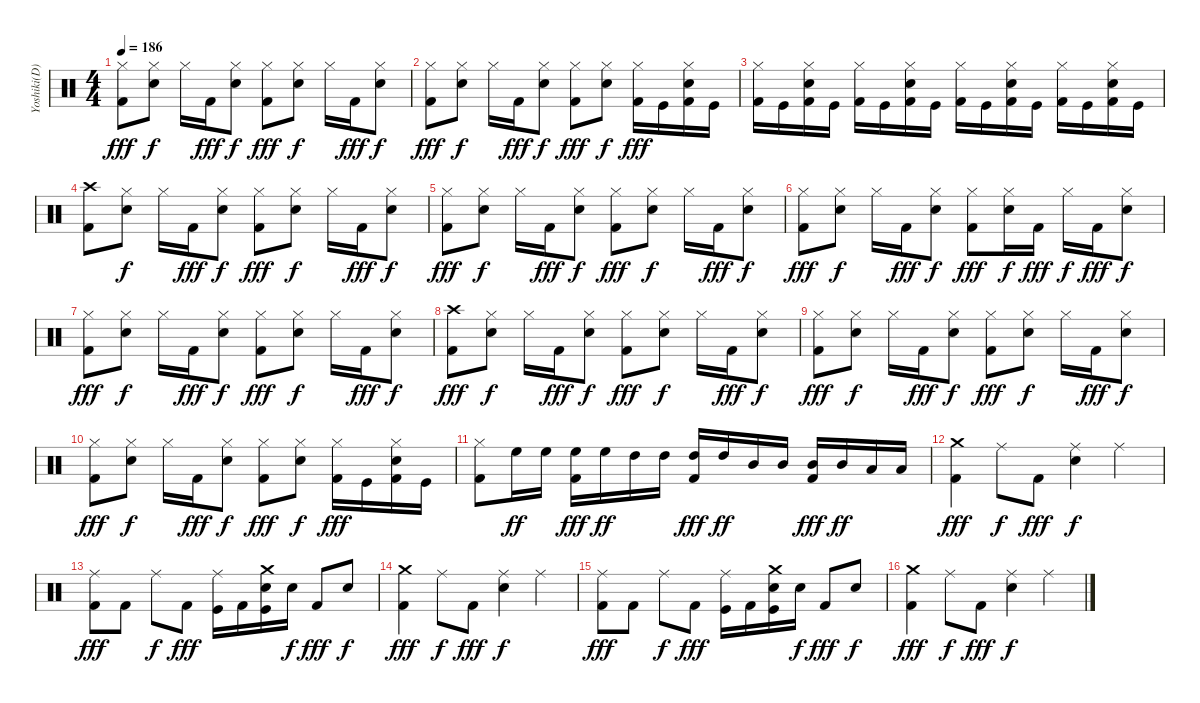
\track ("Yoshiki(D)" "Yoshiki(D)") {instrument percussion}
\staff {score}
\articulation defaults
\ts (4 4)
\tempo 186
\clef neutral
\ks c
("Hi-Hat (closed)" "Kick (hit) 2").8{dy fff} ("Hi-Hat (closed)" "Electric Snare (hit)").8{dy f} "Hi-Hat (closed)".16 "Kick (hit) 2".16{dy fff} ("Hi-Hat (closed)" "Electric Snare (hit)").8{dy f} ("Hi-Hat (closed)" "Kick (hit) 2").8{dy fff} ("Hi-Hat (closed)" "Electric Snare (hit)").8{dy f} "Hi-Hat (closed)".16 "Kick (hit) 2".16{dy fff} ("Hi-Hat (closed)" "Electric Snare (hit)").8{dy f} |
("Hi-Hat (closed)" "Kick (hit) 2").8{dy fff} ("Hi-Hat (closed)" "Electric Snare (hit)").8{dy f} "Hi-Hat (closed)".16 "Kick (hit) 2".16{dy fff} ("Hi-Hat (closed)" "Electric Snare (hit)").8{dy f} ("Hi-Hat (closed)" "Kick (hit) 2").8{dy fff} ("Hi-Hat (closed)" "Electric Snare (hit)").8{dy f} ("Hi-Hat (closed)" "Kick (hit) 2").16{dy fff} "Kick (hit)".16 ("Hi-Hat (closed)" "Electric Snare (hit)" "Kick (hit) 2").16 "Kick (hit)".16 |
("Hi-Hat (closed)" "Kick (hit) 2").16 "Kick (hit)".16 ("Hi-Hat (closed)" "Electric Snare (hit)" "Kick (hit) 2").16 "Kick (hit)".16 ("Hi-Hat (closed)" "Kick (hit) 2").16 "Kick (hit)".16 ("Hi-Hat (closed)" "Electric Snare (hit)" "Kick (hit) 2").16 "Kick (hit)".16 ("Hi-Hat (closed)" "Kick (hit) 2").16 "Kick (hit)".16 ("Hi-Hat (closed)" "Electric Snare (hit)" "Kick (hit) 2").16 "Kick (hit)".16 ("Hi-Hat (closed)" "Kick (hit) 2").16 "Kick (hit)".16 ("Hi-Hat (closed)" "Electric Snare (hit)" "Kick (hit) 2").16 "Kick (hit)".16 |
("Crash high (hit)" "Kick (hit) 2").8 ("Hi-Hat (closed)" "Electric Snare (hit)").8{dy f} "Hi-Hat (closed)".16 "Kick (hit) 2".16{dy fff} ("Hi-Hat (closed)" "Electric Snare (hit)").8{dy f} ("Hi-Hat (closed)" "Kick (hit) 2").8{dy fff} ("Hi-Hat (closed)" "Electric Snare (hit)").8{dy f} "Hi-Hat (closed)".16 "Kick (hit) 2".16{dy fff} ("Hi-Hat (closed)" "Electric Snare (hit)").8{dy f} |
("Hi-Hat (closed)" "Kick (hit) 2").8{dy fff} ("Hi-Hat (closed)" "Electric Snare (hit)").8{dy f} "Hi-Hat (closed)".16 "Kick (hit) 2".16{dy fff} ("Hi-Hat (closed)" "Electric Snare (hit)").8{dy f} ("Hi-Hat (closed)" "Kick (hit) 2").8{dy fff} ("Hi-Hat (closed)" "Electric Snare (hit)").8{dy f} "Hi-Hat (closed)".16 "Kick (hit) 2".16{dy fff} ("Hi-Hat (closed)" "Electric Snare (hit)").8{dy f} |
("Hi-Hat (closed)" "Kick (hit) 2").8{dy fff} ("Hi-Hat (closed)" "Electric Snare (hit)").8{dy f} "Hi-Hat (closed)".16 "Kick (hit) 2".16{dy fff} ("Hi-Hat (closed)" "Electric Snare (hit)").8{dy f} ("Hi-Hat (closed)" "Kick (hit) 2").8{dy fff} ("Hi-Hat (closed)" "Electric Snare (hit)").16{dy f} "Kick (hit) 2".16{dy fff} "Hi-Hat (closed)".16{dy f} "Kick (hit) 2".16{dy fff} ("Hi-Hat (closed)" "Electric Snare (hit)").8{dy f} |
("Hi-Hat (closed)" "Kick (hit) 2").8{dy fff} ("Hi-Hat (closed)" "Electric Snare (hit)").8{dy f} "Hi-Hat (closed)".16 "Kick (hit) 2".16{dy fff} ("Hi-Hat (closed)" "Electric Snare (hit)").8{dy f} ("Hi-Hat (closed)" "Kick (hit) 2").8{dy fff} ("Hi-Hat (closed)" "Electric Snare (hit)").8{dy f} "Hi-Hat (closed)".16 "Kick (hit) 2".16{dy fff} ("Hi-Hat (closed)" "Electric Snare (hit)").8{dy f} |
("Crash high (hit)" "Kick (hit) 2").8{dy fff} ("Hi-Hat (closed)" "Electric Snare (hit)").8{dy f} "Hi-Hat (closed)".16 "Kick (hit) 2".16{dy fff} ("Hi-Hat (closed)" "Electric Snare (hit)").8{dy f} ("Hi-Hat (closed)" "Kick (hit) 2").8{dy fff} ("Hi-Hat (closed)" "Electric Snare (hit)").8{dy f} "Hi-Hat (closed)".16 "Kick (hit) 2".16{dy fff} ("Hi-Hat (closed)" "Electric Snare (hit)").8{dy f} |
("Hi-Hat (closed)" "Kick (hit) 2").8{dy fff} ("Hi-Hat (closed)" "Electric Snare (hit)").8{dy f} "Hi-Hat (closed)".16 "Kick (hit) 2".16{dy fff} ("Hi-Hat (closed)" "Electric Snare (hit)").8{dy f} ("Hi-Hat (closed)" "Kick (hit) 2").8{dy fff} ("Hi-Hat (closed)" "Electric Snare (hit)").8{dy f} "Hi-Hat (closed)".16 "Kick (hit) 2".16{dy fff} ("Hi-Hat (closed)" "Electric Snare (hit)").8{dy f} |
("Hi-Hat (closed)" "Kick (hit) 2").8{dy fff} ("Hi-Hat (closed)" "Electric Snare (hit)").8{dy f} "Hi-Hat (closed)".16 "Kick (hit) 2".16{dy fff} ("Hi-Hat (closed)" "Electric Snare (hit)").8{dy f} ("Hi-Hat (closed)" "Kick (hit) 2").8{dy fff} ("Hi-Hat (closed)" "Electric Snare (hit)").8{dy f} ("Hi-Hat (closed)" "Kick (hit) 2").16{dy fff} "Kick (hit)".16 ("Hi-Hat (closed)" "Electric Snare (hit)" "Kick (hit) 2").16 "Kick (hit)".16 |
("Hi-Hat (closed)" "Kick (hit) 2").8 "High Floor Tom (hit)".16{dy ff} "High Floor Tom (hit)".16 ("High Floor Tom (hit)" "Kick (hit) 2").16{dy fff} "High Floor Tom (hit)".16{dy ff} "High Tom (hit)".16 "High Tom (hit)".16 ("High Tom (hit)" "Kick (hit) 2").16{dy fff} "High Tom (hit)".16{dy ff} "Mid Tom (hit)".16 "Mid Tom (hit)".16 ("Mid Tom (hit)" "Kick (hit) 2").16{dy fff} "Mid Tom (hit)".16{dy ff} "Low Tom (hit)".16 "Low Tom (hit)".16 |
("Crash medium (hit)" "Kick (hit) 2").4{dy fff} "Ride (middle)".8{dy f} "Kick (hit) 2".8{dy fff} ("Ride (middle)" "Electric Snare (hit)").4{dy f} "Ride (middle)".4 |
("Ride (middle)" "Kick (hit) 2").8{dy fff} "Kick (hit) 2".8 "Ride (middle)".8{dy f} "Kick (hit) 2".8{dy fff} ("Ride (middle)" "Kick (hit)").16 "Kick (hit) 2".16 ("Crash medium (hit)" "Electric Snare (hit)" "Kick (hit)").16 "Electric Snare (hit)".16{dy f} "Kick (hit) 2".8{dy fff} "Electric Snare (hit)".8{dy f} |
("Crash medium (hit)" "Kick (hit) 2").4{dy fff} "Ride (middle)".8{dy f} "Kick (hit) 2".8{dy fff} ("Ride (middle)" "Electric Snare (hit)").4{dy f} "Ride (middle)".4 |
("Ride (middle)" "Kick (hit) 2").8{dy fff} "Kick (hit) 2".8 "Ride (middle)".8{dy f} "Kick (hit) 2".8{dy fff} ("Ride (middle)" "Kick (hit)").16 "Kick (hit) 2".16 ("Crash medium (hit)" "Electric Snare (hit)" "Kick (hit)").16 "Electric Snare (hit)".16{dy f} "Kick (hit) 2".8{dy fff} "Electric Snare (hit)".8{dy f} |
("Crash medium (hit)" "Kick (hit) 2").4{dy fff} "Ride (middle)".8{dy f} "Kick (hit) 2".8{dy fff} ("Ride (middle)" "Electric Snare (hit)").4{dy f} "Ride (middle)".4
